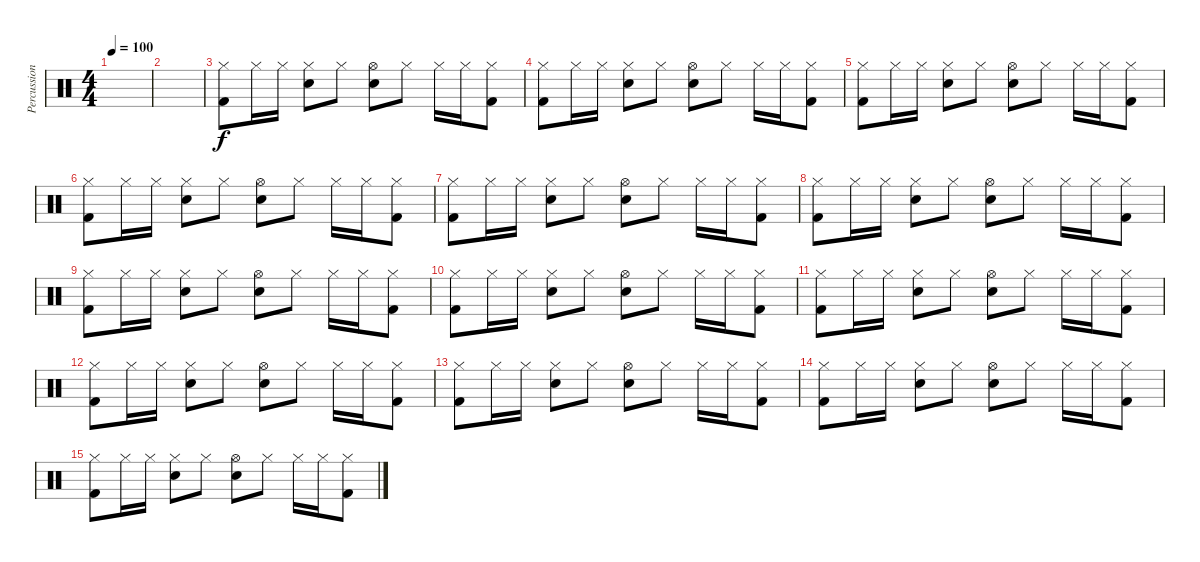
\track ("Percussions" "Percussion") {instrument percussion}
\staff {score}
\articulation defaults
\ts (4 4)
\tempo 100
\clef neutral
\ks c
|
|
("Hi-Hat (closed)" "Kick (hit) 2").8 "Hi-Hat (closed)".16 "Hi-Hat (closed)".16 ("Hi-Hat (closed)" "Snare (hit) 2").8 "Hi-Hat (closed)".8 ("Hi-Hat (open)" "Snare (hit) 2").8 "Hi-Hat (closed)".8 "Hi-Hat (closed)".16 "Hi-Hat (closed)".16 ("Hi-Hat (closed)" "Kick (hit) 2").8 |
("Hi-Hat (closed)" "Kick (hit) 2").8 "Hi-Hat (closed)".16 "Hi-Hat (closed)".16 ("Hi-Hat (closed)" "Snare (hit) 2").8 "Hi-Hat (closed)".8 ("Hi-Hat (open)" "Snare (hit) 2").8 "Hi-Hat (closed)".8 "Hi-Hat (closed)".16 "Hi-Hat (closed)".16 ("Hi-Hat (closed)" "Kick (hit) 2").8 |
("Hi-Hat (closed)" "Kick (hit) 2").8 "Hi-Hat (closed)".16 "Hi-Hat (closed)".16 ("Hi-Hat (closed)" "Snare (hit) 2").8 "Hi-Hat (closed)".8 ("Hi-Hat (open)" "Snare (hit) 2").8 "Hi-Hat (closed)".8 "Hi-Hat (closed)".16 "Hi-Hat (closed)".16 ("Hi-Hat (closed)" "Kick (hit) 2").8 |
("Hi-Hat (closed)" "Kick (hit) 2").8 "Hi-Hat (closed)".16 "Hi-Hat (closed)".16 ("Hi-Hat (closed)" "Snare (hit) 2").8 "Hi-Hat (closed)".8 ("Hi-Hat (open)" "Snare (hit) 2").8 "Hi-Hat (closed)".8 "Hi-Hat (closed)".16 "Hi-Hat (closed)".16 ("Hi-Hat (closed)" "Kick (hit) 2").8 |
("Hi-Hat (closed)" "Kick (hit) 2").8 "Hi-Hat (closed)".16 "Hi-Hat (closed)".16 ("Hi-Hat (closed)" "Snare (hit) 2").8 "Hi-Hat (closed)".8 ("Hi-Hat (open)" "Snare (hit) 2").8 "Hi-Hat (closed)".8 "Hi-Hat (closed)".16 "Hi-Hat (closed)".16 ("Hi-Hat (closed)" "Kick (hit) 2").8 |
("Hi-Hat (closed)" "Kick (hit) 2").8 "Hi-Hat (closed)".16 "Hi-Hat (closed)".16 ("Hi-Hat (closed)" "Snare (hit) 2").8 "Hi-Hat (closed)".8 ("Hi-Hat (open)" "Snare (hit) 2").8 "Hi-Hat (closed)".8 "Hi-Hat (closed)".16 "Hi-Hat (closed)".16 ("Hi-Hat (closed)" "Kick (hit) 2").8 |
("Hi-Hat (closed)" "Kick (hit) 2").8 "Hi-Hat (closed)".16 "Hi-Hat (closed)".16 ("Hi-Hat (closed)" "Snare (hit) 2").8 "Hi-Hat (closed)".8 ("Hi-Hat (open)" "Snare (hit) 2").8 "Hi-Hat (closed)".8 "Hi-Hat (closed)".16 "Hi-Hat (closed)".16 ("Hi-Hat (closed)" "Kick (hit) 2").8 |
("Hi-Hat (closed)" "Kick (hit) 2").8 "Hi-Hat (closed)".16 "Hi-Hat (closed)".16 ("Hi-Hat (closed)" "Snare (hit) 2").8 "Hi-Hat (closed)".8 ("Hi-Hat (open)" "Snare (hit) 2").8 "Hi-Hat (closed)".8 "Hi-Hat (closed)".16 "Hi-Hat (closed)".16 ("Hi-Hat (closed)" "Kick (hit) 2").8 |
("Hi-Hat (closed)" "Kick (hit) 2").8 "Hi-Hat (closed)".16 "Hi-Hat (closed)".16 ("Hi-Hat (closed)" "Snare (hit) 2").8 "Hi-Hat (closed)".8 ("Hi-Hat (open)" "Snare (hit) 2").8 "Hi-Hat (closed)".8 "Hi-Hat (closed)".16 "Hi-Hat (closed)".16 ("Hi-Hat (closed)" "Kick (hit) 2").8 |
("Hi-Hat (closed)" "Kick (hit) 2").8 "Hi-Hat (closed)".16 "Hi-Hat (closed)".16 ("Hi-Hat (closed)" "Snare (hit) 2").8 "Hi-Hat (closed)".8 ("Hi-Hat (open)" "Snare (hit) 2").8 "Hi-Hat (closed)".8 "Hi-Hat (closed)".16 "Hi-Hat (closed)".16 ("Hi-Hat (closed)" "Kick (hit) 2").8 |
("Hi-Hat (closed)" "Kick (hit) 2").8 "Hi-Hat (closed)".16 "Hi-Hat (closed)".16 ("Hi-Hat (closed)" "Snare (hit) 2").8 "Hi-Hat (closed)".8 ("Hi-Hat (open)" "Snare (hit) 2").8 "Hi-Hat (closed)".8 "Hi-Hat (closed)".16 "Hi-Hat (closed)".16 ("Hi-Hat (closed)" "Kick (hit) 2").8 |
("Hi-Hat (closed)" "Kick (hit) 2").8 "Hi-Hat (closed)".16 "Hi-Hat (closed)".16 ("Hi-Hat (closed)" "Snare (hit) 2").8 "Hi-Hat (closed)".8 ("Hi-Hat (open)" "Snare (hit) 2").8 "Hi-Hat (closed)".8 "Hi-Hat (closed)".16 "Hi-Hat (closed)".16 ("Hi-Hat (closed)" "Kick (hit) 2").8 |
("Hi-Hat (closed)" "Kick (hit) 2").8 "Hi-Hat (closed)".16 "Hi-Hat (closed)".16 ("Hi-Hat (closed)" "Snare (hit) 2").8 "Hi-Hat (closed)".8 ("Hi-Hat (open)" "Snare (hit) 2").8 "Hi-Hat (closed)".8 "Hi-Hat (closed)".16 "Hi-Hat (closed)".16 ("Hi-Hat (closed)" "Kick (hit) 2").8
